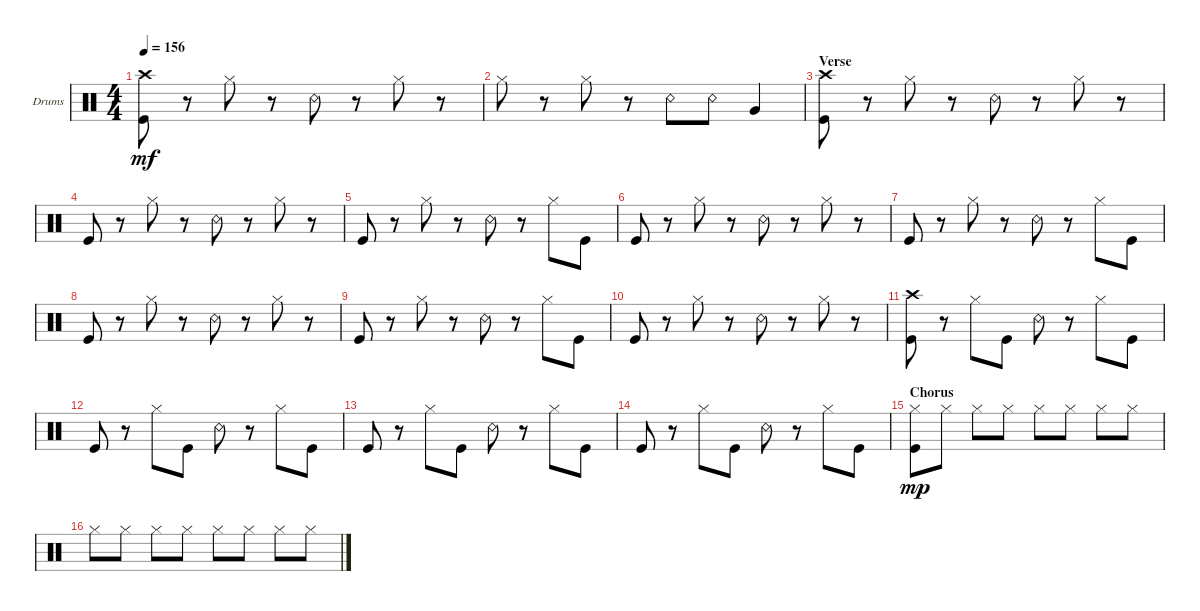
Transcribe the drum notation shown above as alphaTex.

\defaultSystemsLayout 4
\bracketExtendMode groupsimilarinstruments
\firstSystemTrackNameOrientation horizontal
\otherSystemsTrackNameOrientation horizontal
\track ("Drumkit" "Drums") {instrument percussion}
\staff {score}
\articulation defaults
\ts (4 4)
\tempo 156
\clef neutral
\ks c
("Crash high (hit)" "Kick (hit)").8{dy mf} r.8 "Hi-Hat (closed)".8 r.8 "Snare (rim shot)".8 r.8 "Hi-Hat (closed)".8 r.8 |
"Hi-Hat (closed)".8 r.8 "Hi-Hat (closed)".8 r.8 "Snare (rim shot)".8 "Snare (rim shot)".8 "Very Low Tom (hit)".4 |
\section ("" "Verse")
("Crash high (hit)" "Kick (hit)").8 r.8 "Hi-Hat (closed)".8 r.8 "Snare (rim shot)".8 r.8 "Hi-Hat (closed)".8 r.8 |
"Kick (hit)".8 r.8 "Hi-Hat (closed)".8 r.8 "Snare (rim shot)".8 r.8 "Hi-Hat (closed)".8 r.8 |
"Kick (hit)".8 r.8 "Hi-Hat (closed)".8 r.8 "Snare (rim shot)".8 r.8 "Hi-Hat (closed)".8 "Kick (hit)".8 |
"Kick (hit)".8 r.8 "Hi-Hat (closed)".8 r.8 "Snare (rim shot)".8 r.8 "Hi-Hat (closed)".8 r.8 |
"Kick (hit)".8 r.8 "Hi-Hat (closed)".8 r.8 "Snare (rim shot)".8 r.8 "Hi-Hat (closed)".8 "Kick (hit)".8 |
"Kick (hit)".8 r.8 "Hi-Hat (closed)".8 r.8 "Snare (rim shot)".8 r.8 "Hi-Hat (closed)".8 r.8 |
"Kick (hit)".8 r.8 "Hi-Hat (closed)".8 r.8 "Snare (rim shot)".8 r.8 "Hi-Hat (closed)".8 "Kick (hit)".8 |
"Kick (hit)".8 r.8 "Hi-Hat (closed)".8 r.8 "Snare (rim shot)".8 r.8 "Hi-Hat (closed)".8 r.8 |
("Crash high (hit)" "Kick (hit)").8 r.8 "Hi-Hat (closed)".8 "Kick (hit)".8 "Snare (rim shot)".8 r.8 "Hi-Hat (closed)".8 "Kick (hit)".8 |
"Kick (hit)".8 r.8 "Hi-Hat (closed)".8 "Kick (hit)".8 "Snare (rim shot)".8 r.8 "Hi-Hat (closed)".8 "Kick (hit)".8 |
"Kick (hit)".8 r.8 "Hi-Hat (closed)".8 "Kick (hit)".8 "Snare (rim shot)".8 r.8 "Hi-Hat (closed)".8 "Kick (hit)".8 |
"Kick (hit)".8 r.8 "Hi-Hat (closed)".8 "Kick (hit)".8 "Snare (rim shot)".8 r.8 "Hi-Hat (closed)".8 "Kick (hit)".8 |
\section ("" "Chorus")
("Hi-Hat (closed)" "Kick (hit)").8{dy mp} "Hi-Hat (closed)".8 "Hi-Hat (closed)".8 "Hi-Hat (closed)".8 "Hi-Hat (closed)".8 "Hi-Hat (closed)".8 "Hi-Hat (closed)".8 "Hi-Hat (closed)".8 |
"Hi-Hat (closed)".8 "Hi-Hat (closed)".8 "Hi-Hat (closed)".8 "Hi-Hat (closed)".8 "Hi-Hat (closed)".8 "Hi-Hat (closed)".8 "Hi-Hat (closed)".8 "Hi-Hat (closed)".8
